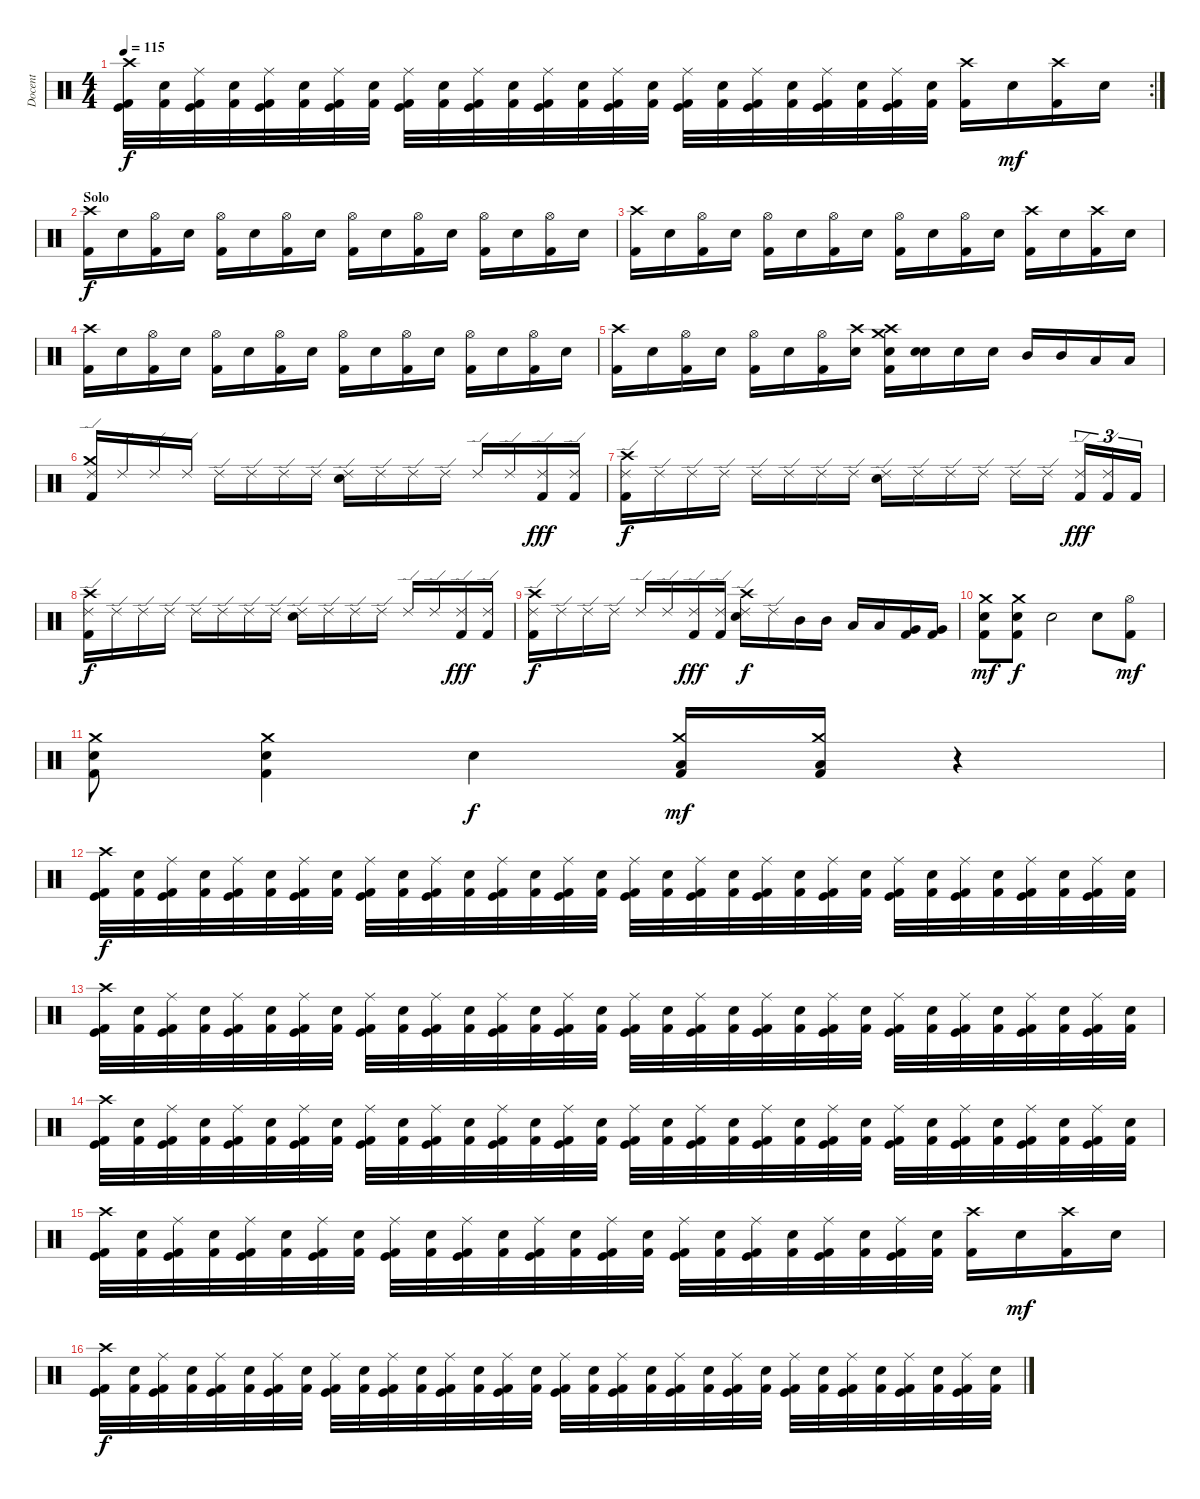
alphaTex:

\track ("Docent" "Docent") {instrument percussion}
\staff {score}
\articulation defaults
\rc 2
\ts (4 4)
\tempo 115
\clef neutral
\ks c
("Crash high (hit)" "Kick (hit)" "Kick (hit) 2").32{dy f} ("Snare (hit) 2" "Kick (hit) 2").32 ("Ride (middle)" "Kick (hit)" "Kick (hit) 2").32 ("Snare (hit) 2" "Kick (hit) 2").32 ("Ride (middle)" "Kick (hit)" "Kick (hit) 2").32 ("Snare (hit) 2" "Kick (hit) 2").32 ("Ride (middle)" "Kick (hit)" "Kick (hit) 2").32 ("Snare (hit) 2" "Kick (hit) 2").32 ("Ride (middle)" "Kick (hit)" "Kick (hit) 2").32 ("Snare (hit) 2" "Kick (hit) 2").32 ("Ride (middle)" "Kick (hit)" "Kick (hit) 2").32 ("Snare (hit) 2" "Kick (hit) 2").32 ("Ride (middle)" "Kick (hit)" "Kick (hit) 2").32 ("Snare (hit) 2" "Kick (hit) 2").32 ("Ride (middle)" "Kick (hit)" "Kick (hit) 2").32 ("Snare (hit) 2" "Kick (hit) 2").32 ("Ride (middle)" "Kick (hit)" "Kick (hit) 2").32 ("Snare (hit) 2" "Kick (hit) 2").32 ("Ride (middle)" "Kick (hit)" "Kick (hit) 2").32 ("Snare (hit) 2" "Kick (hit) 2").32 ("Ride (middle)" "Kick (hit)" "Kick (hit) 2").32 ("Snare (hit) 2" "Kick (hit) 2").32 ("Ride (middle)" "Kick (hit)" "Kick (hit) 2").32 ("Snare (hit) 2" "Kick (hit) 2").32 ("Crash high (hit)" "Kick (hit) 2").16 "Snare (hit) 2".16{dy mf} ("Crash high (hit)" "Kick (hit) 2").16 "Snare (hit) 2".16 |
\section ("" "Solo")
("Crash high (hit)" "Kick (hit) 2").16{dy f} "Snare (hit) 2".16 ("Hi-Hat (open)" "Kick (hit) 2").16 "Snare (hit) 2".16 ("Hi-Hat (open)" "Kick (hit) 2").16 "Snare (hit) 2".16 ("Hi-Hat (open)" "Kick (hit) 2").16 "Snare (hit) 2".16 ("Hi-Hat (open)" "Kick (hit) 2").16 "Snare (hit) 2".16 ("Hi-Hat (open)" "Kick (hit) 2").16 "Snare (hit) 2".16 ("Hi-Hat (open)" "Kick (hit) 2").16 "Snare (hit) 2".16 ("Hi-Hat (open)" "Kick (hit) 2").16 "Snare (hit) 2".16 |
("Crash high (hit)" "Kick (hit) 2").16 "Snare (hit) 2".16 ("Hi-Hat (open)" "Kick (hit) 2").16 "Snare (hit) 2".16 ("Hi-Hat (open)" "Kick (hit) 2").16 "Snare (hit) 2".16 ("Hi-Hat (open)" "Kick (hit) 2").16 "Snare (hit) 2".16 ("Hi-Hat (open)" "Kick (hit) 2").16 "Snare (hit) 2".16 ("Hi-Hat (open)" "Kick (hit) 2").16 "Snare (hit) 2".16 ("Crash high (hit)" "Kick (hit) 2").16 "Snare (hit) 2".16 ("Crash high (hit)" "Kick (hit) 2").16 "Snare (hit) 2".16 |
("Crash high (hit)" "Kick (hit) 2").16 "Snare (hit) 2".16 ("Hi-Hat (open)" "Kick (hit) 2").16 "Snare (hit) 2".16 ("Hi-Hat (open)" "Kick (hit) 2").16 "Snare (hit) 2".16 ("Hi-Hat (open)" "Kick (hit) 2").16 "Snare (hit) 2".16 ("Hi-Hat (open)" "Kick (hit) 2").16 "Snare (hit) 2".16 ("Hi-Hat (open)" "Kick (hit) 2").16 "Snare (hit) 2".16 ("Hi-Hat (open)" "Kick (hit) 2").16 "Snare (hit) 2".16 ("Hi-Hat (open)" "Kick (hit) 2").16 "Snare (hit) 2".16 |
("Crash high (hit)" "Kick (hit) 2").16 "Snare (hit) 2".16 ("Hi-Hat (open)" "Kick (hit) 2").16 "Snare (hit) 2".16 ("Hi-Hat (open)" "Kick (hit) 2").16 "Snare (hit) 2".16 ("Hi-Hat (open)" "Kick (hit) 2").16 ("Crash high (hit)" "Snare (hit) 2").16 ("Crash high (hit)" "Crash medium (hit)" "Snare (hit) 2" "Kick (hit) 2").16 ("Snare (hit)" "Snare (hit) 2").16 "Snare (hit) 2".16 "Snare (hit) 2".16 "Mid Tom (hit)".16 "Mid Tom (hit)".16 "Low Tom (hit)".16 "Low Tom (hit)".16 |
("Crash medium (hit)" "Kick (hit) 2" "Ride (edge) 2").16 "Ride (edge) 2".16 "Ride (edge) 2".16 "Ride (edge) 2".16 "Ride (edge) 2".16 "Ride (edge) 2".16 "Ride (edge) 2".16 "Ride (edge) 2".16 ("Snare (hit) 2" "Ride (edge) 2").16 "Ride (edge) 2".16 "Ride (edge) 2".16 "Ride (edge) 2".16 "Ride (edge) 2".16 "Ride (edge) 2".16 ("Kick (hit) 2" "Ride (edge) 2").16{dy fff} ("Kick (hit) 2" "Ride (edge) 2").16 |
("Crash high (hit)" "Kick (hit) 2" "Ride (edge) 2").16{dy f} "Ride (edge) 2".16 "Ride (edge) 2".16 "Ride (edge) 2".16 "Ride (edge) 2".16 "Ride (edge) 2".16 "Ride (edge) 2".16 "Ride (edge) 2".16 ("Snare (hit) 2" "Ride (edge) 2").16 "Ride (edge) 2".16 "Ride (edge) 2".16 "Ride (edge) 2".16 "Ride (edge) 2".16 "Ride (edge) 2".16 ("Kick (hit) 2" "Ride (edge) 2").16{tu (3 2) dy fff} ("Kick (hit) 2" "Ride (edge) 2").16{tu (3 2)} "Kick (hit) 2".16{tu (3 2)} |
("Crash high (hit)" "Kick (hit) 2" "Ride (edge) 2").16{dy f} "Ride (edge) 2".16 "Ride (edge) 2".16 "Ride (edge) 2".16 "Ride (edge) 2".16 "Ride (edge) 2".16 "Ride (edge) 2".16 "Ride (edge) 2".16 ("Snare (hit) 2" "Ride (edge) 2").16 "Ride (edge) 2".16 "Ride (edge) 2".16 "Ride (edge) 2".16 "Ride (edge) 2".16 "Ride (edge) 2".16 ("Kick (hit) 2" "Ride (edge) 2").16{dy fff} ("Kick (hit) 2" "Ride (edge) 2").16 |
("Crash high (hit)" "Kick (hit) 2" "Ride (edge) 2").16{dy f} "Ride (edge) 2".16 "Ride (edge) 2".16 "Ride (edge) 2".16 "Ride (edge) 2".16 "Ride (edge) 2".16 ("Kick (hit) 2" "Ride (edge) 2").16{dy fff} ("Kick (hit) 2" "Ride (edge) 2").16 ("Crash high (hit)" "Snare (hit) 2" "Ride (edge) 2").16{dy f} "Ride (edge) 2".16 "Mid Tom (hit)".16 "Mid Tom (hit)".16 "Low Tom (hit)".16 "Low Tom (hit)".16 ("Very Low Tom (hit)" "Kick (hit) 2").16 ("Very Low Tom (hit)" "Kick (hit) 2").16 |
("Crash medium (hit)" "Snare (hit) 2" "Kick (hit) 2").8{dy mf} ("Crash medium (hit)" "Snare (hit) 2" "Kick (hit) 2").8{dy f} "Snare (hit)".2 "Snare (hit)".8 ("Hi-Hat (open)" "Kick (hit) 2").8{dy mf} |
("Crash medium (hit)" "Snare (hit) 2" "Kick (hit) 2").8 ("Crash medium (hit)" "Snare (hit) 2" "Kick (hit) 2").4 "Snare (hit)".4{dy f} ("Crash medium (hit)" "Low Tom (hit)" "Kick (hit) 2").16{dy mf} ("Crash medium (hit)" "Low Tom (hit)" "Kick (hit) 2").16 r.4 |
("Crash high (hit)" "Kick (hit)" "Kick (hit) 2").32{dy f} ("Snare (hit) 2" "Kick (hit) 2").32 ("Ride (middle)" "Kick (hit)" "Kick (hit) 2").32 ("Snare (hit) 2" "Kick (hit) 2").32 ("Ride (middle)" "Kick (hit)" "Kick (hit) 2").32 ("Snare (hit) 2" "Kick (hit) 2").32 ("Ride (middle)" "Kick (hit)" "Kick (hit) 2").32 ("Snare (hit) 2" "Kick (hit) 2").32 ("Ride (middle)" "Kick (hit)" "Kick (hit) 2").32 ("Snare (hit) 2" "Kick (hit) 2").32 ("Ride (middle)" "Kick (hit)" "Kick (hit) 2").32 ("Snare (hit) 2" "Kick (hit) 2").32 ("Ride (middle)" "Kick (hit)" "Kick (hit) 2").32 ("Snare (hit) 2" "Kick (hit) 2").32 ("Ride (middle)" "Kick (hit)" "Kick (hit) 2").32 ("Snare (hit) 2" "Kick (hit) 2").32 ("Ride (middle)" "Kick (hit)" "Kick (hit) 2").32 ("Snare (hit) 2" "Kick (hit) 2").32 ("Ride (middle)" "Kick (hit)" "Kick (hit) 2").32 ("Snare (hit) 2" "Kick (hit) 2").32 ("Ride (middle)" "Kick (hit)" "Kick (hit) 2").32 ("Snare (hit) 2" "Kick (hit) 2").32 ("Ride (middle)" "Kick (hit)" "Kick (hit) 2").32 ("Snare (hit) 2" "Kick (hit) 2").32 ("Ride (middle)" "Kick (hit)" "Kick (hit) 2").32 ("Snare (hit) 2" "Kick (hit) 2").32 ("Ride (middle)" "Kick (hit)" "Kick (hit) 2").32 ("Snare (hit) 2" "Kick (hit) 2").32 ("Ride (middle)" "Kick (hit)" "Kick (hit) 2").32 ("Snare (hit) 2" "Kick (hit) 2").32 ("Ride (middle)" "Kick (hit)" "Kick (hit) 2").32 ("Snare (hit) 2" "Kick (hit) 2").32 |
("Crash high (hit)" "Kick (hit)" "Kick (hit) 2").32 ("Snare (hit) 2" "Kick (hit) 2").32 ("Ride (middle)" "Kick (hit)" "Kick (hit) 2").32 ("Snare (hit) 2" "Kick (hit) 2").32 ("Ride (middle)" "Kick (hit)" "Kick (hit) 2").32 ("Snare (hit) 2" "Kick (hit) 2").32 ("Ride (middle)" "Kick (hit)" "Kick (hit) 2").32 ("Snare (hit) 2" "Kick (hit) 2").32 ("Ride (middle)" "Kick (hit)" "Kick (hit) 2").32 ("Snare (hit) 2" "Kick (hit) 2").32 ("Ride (middle)" "Kick (hit)" "Kick (hit) 2").32 ("Snare (hit) 2" "Kick (hit) 2").32 ("Ride (middle)" "Kick (hit)" "Kick (hit) 2").32 ("Snare (hit) 2" "Kick (hit) 2").32 ("Ride (middle)" "Kick (hit)" "Kick (hit) 2").32 ("Snare (hit) 2" "Kick (hit) 2").32 ("Ride (middle)" "Kick (hit)" "Kick (hit) 2").32 ("Snare (hit) 2" "Kick (hit) 2").32 ("Ride (middle)" "Kick (hit)" "Kick (hit) 2").32 ("Snare (hit) 2" "Kick (hit) 2").32 ("Ride (middle)" "Kick (hit)" "Kick (hit) 2").32 ("Snare (hit) 2" "Kick (hit) 2").32 ("Ride (middle)" "Kick (hit)" "Kick (hit) 2").32 ("Snare (hit) 2" "Kick (hit) 2").32 ("Ride (middle)" "Kick (hit)" "Kick (hit) 2").32 ("Snare (hit) 2" "Kick (hit) 2").32 ("Ride (middle)" "Kick (hit)" "Kick (hit) 2").32 ("Snare (hit) 2" "Kick (hit) 2").32 ("Ride (middle)" "Kick (hit)" "Kick (hit) 2").32 ("Snare (hit) 2" "Kick (hit) 2").32 ("Ride (middle)" "Kick (hit)" "Kick (hit) 2").32 ("Snare (hit) 2" "Kick (hit) 2").32 |
("Crash high (hit)" "Kick (hit)" "Kick (hit) 2").32 ("Snare (hit) 2" "Kick (hit) 2").32 ("Ride (middle)" "Kick (hit)" "Kick (hit) 2").32 ("Snare (hit) 2" "Kick (hit) 2").32 ("Ride (middle)" "Kick (hit)" "Kick (hit) 2").32 ("Snare (hit) 2" "Kick (hit) 2").32 ("Ride (middle)" "Kick (hit)" "Kick (hit) 2").32 ("Snare (hit) 2" "Kick (hit) 2").32 ("Ride (middle)" "Kick (hit)" "Kick (hit) 2").32 ("Snare (hit) 2" "Kick (hit) 2").32 ("Ride (middle)" "Kick (hit)" "Kick (hit) 2").32 ("Snare (hit) 2" "Kick (hit) 2").32 ("Ride (middle)" "Kick (hit)" "Kick (hit) 2").32 ("Snare (hit) 2" "Kick (hit) 2").32 ("Ride (middle)" "Kick (hit)" "Kick (hit) 2").32 ("Snare (hit) 2" "Kick (hit) 2").32 ("Ride (middle)" "Kick (hit)" "Kick (hit) 2").32 ("Snare (hit) 2" "Kick (hit) 2").32 ("Ride (middle)" "Kick (hit)" "Kick (hit) 2").32 ("Snare (hit) 2" "Kick (hit) 2").32 ("Ride (middle)" "Kick (hit)" "Kick (hit) 2").32 ("Snare (hit) 2" "Kick (hit) 2").32 ("Ride (middle)" "Kick (hit)" "Kick (hit) 2").32 ("Snare (hit) 2" "Kick (hit) 2").32 ("Ride (middle)" "Kick (hit)" "Kick (hit) 2").32 ("Snare (hit) 2" "Kick (hit) 2").32 ("Ride (middle)" "Kick (hit)" "Kick (hit) 2").32 ("Snare (hit) 2" "Kick (hit) 2").32 ("Ride (middle)" "Kick (hit)" "Kick (hit) 2").32 ("Snare (hit) 2" "Kick (hit) 2").32 ("Ride (middle)" "Kick (hit)" "Kick (hit) 2").32 ("Snare (hit) 2" "Kick (hit) 2").32 |
("Crash high (hit)" "Kick (hit)" "Kick (hit) 2").32 ("Snare (hit) 2" "Kick (hit) 2").32 ("Ride (middle)" "Kick (hit)" "Kick (hit) 2").32 ("Snare (hit) 2" "Kick (hit) 2").32 ("Ride (middle)" "Kick (hit)" "Kick (hit) 2").32 ("Snare (hit) 2" "Kick (hit) 2").32 ("Ride (middle)" "Kick (hit)" "Kick (hit) 2").32 ("Snare (hit) 2" "Kick (hit) 2").32 ("Ride (middle)" "Kick (hit)" "Kick (hit) 2").32 ("Snare (hit) 2" "Kick (hit) 2").32 ("Ride (middle)" "Kick (hit)" "Kick (hit) 2").32 ("Snare (hit) 2" "Kick (hit) 2").32 ("Ride (middle)" "Kick (hit)" "Kick (hit) 2").32 ("Snare (hit) 2" "Kick (hit) 2").32 ("Ride (middle)" "Kick (hit)" "Kick (hit) 2").32 ("Snare (hit) 2" "Kick (hit) 2").32 ("Ride (middle)" "Kick (hit)" "Kick (hit) 2").32 ("Snare (hit) 2" "Kick (hit) 2").32 ("Ride (middle)" "Kick (hit)" "Kick (hit) 2").32 ("Snare (hit) 2" "Kick (hit) 2").32 ("Ride (middle)" "Kick (hit)" "Kick (hit) 2").32 ("Snare (hit) 2" "Kick (hit) 2").32 ("Ride (middle)" "Kick (hit)" "Kick (hit) 2").32 ("Snare (hit) 2" "Kick (hit) 2").32 ("Crash high (hit)" "Kick (hit) 2").16 "Snare (hit) 2".16{dy mf} ("Crash high (hit)" "Kick (hit) 2").16 "Snare (hit) 2".16 |
("Crash high (hit)" "Kick (hit)" "Kick (hit) 2").32{dy f} ("Snare (hit) 2" "Kick (hit) 2").32 ("Ride (middle)" "Kick (hit)" "Kick (hit) 2").32 ("Snare (hit) 2" "Kick (hit) 2").32 ("Ride (middle)" "Kick (hit)" "Kick (hit) 2").32 ("Snare (hit) 2" "Kick (hit) 2").32 ("Ride (middle)" "Kick (hit)" "Kick (hit) 2").32 ("Snare (hit) 2" "Kick (hit) 2").32 ("Ride (middle)" "Kick (hit)" "Kick (hit) 2").32 ("Snare (hit) 2" "Kick (hit) 2").32 ("Ride (middle)" "Kick (hit)" "Kick (hit) 2").32 ("Snare (hit) 2" "Kick (hit) 2").32 ("Ride (middle)" "Kick (hit)" "Kick (hit) 2").32 ("Snare (hit) 2" "Kick (hit) 2").32 ("Ride (middle)" "Kick (hit)" "Kick (hit) 2").32 ("Snare (hit) 2" "Kick (hit) 2").32 ("Ride (middle)" "Kick (hit)" "Kick (hit) 2").32 ("Snare (hit) 2" "Kick (hit) 2").32 ("Ride (middle)" "Kick (hit)" "Kick (hit) 2").32 ("Snare (hit) 2" "Kick (hit) 2").32 ("Ride (middle)" "Kick (hit)" "Kick (hit) 2").32 ("Snare (hit) 2" "Kick (hit) 2").32 ("Ride (middle)" "Kick (hit)" "Kick (hit) 2").32 ("Snare (hit) 2" "Kick (hit) 2").32 ("Ride (middle)" "Kick (hit)" "Kick (hit) 2").32 ("Snare (hit) 2" "Kick (hit) 2").32 ("Ride (middle)" "Kick (hit)" "Kick (hit) 2").32 ("Snare (hit) 2" "Kick (hit) 2").32 ("Ride (middle)" "Kick (hit)" "Kick (hit) 2").32 ("Snare (hit) 2" "Kick (hit) 2").32 ("Ride (middle)" "Kick (hit)" "Kick (hit) 2").32 ("Snare (hit) 2" "Kick (hit) 2").32
